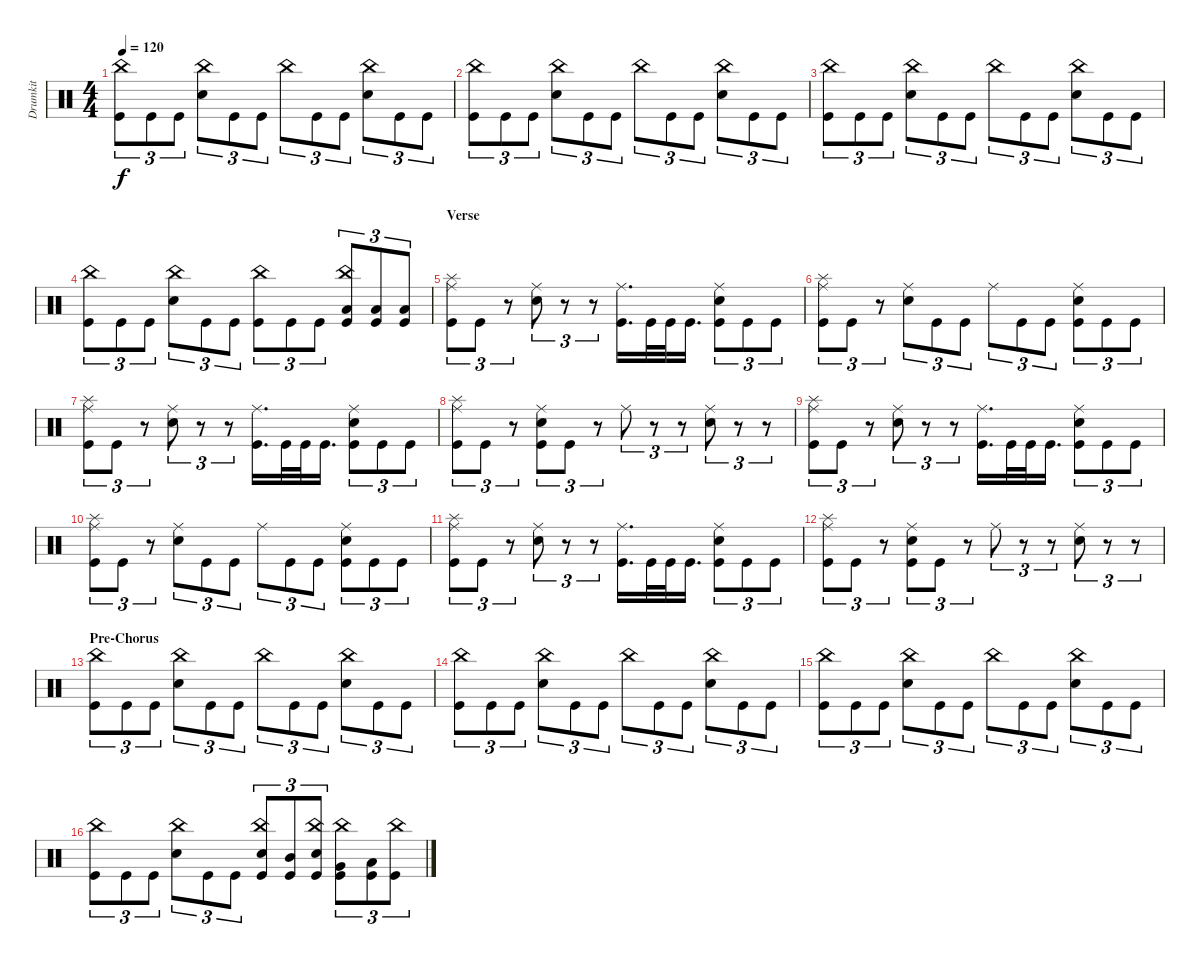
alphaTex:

\track ("Drumkit" "Drumkit") {instrument percussion}
\staff {score}
\articulation defaults
\ts (4 4)
\tempo 120
\clef neutral
\ks c
("Kick (hit)" "China (hit)").8{tu (3 2) dy f} "Kick (hit)".8{tu (3 2)} "Kick (hit)".8{tu (3 2)} ("Snare (hit) 2" "China (hit)").8{tu (3 2)} "Kick (hit)".8{tu (3 2)} "Kick (hit)".8{tu (3 2)} "China (hit)".8{tu (3 2)} "Kick (hit)".8{tu (3 2)} "Kick (hit)".8{tu (3 2)} ("Snare (hit) 2" "China (hit)").8{tu (3 2)} "Kick (hit)".8{tu (3 2)} "Kick (hit)".8{tu (3 2)} |
("Kick (hit)" "China (hit)").8{tu (3 2)} "Kick (hit)".8{tu (3 2)} "Kick (hit)".8{tu (3 2)} ("Snare (hit) 2" "China (hit)").8{tu (3 2)} "Kick (hit)".8{tu (3 2)} "Kick (hit)".8{tu (3 2)} "China (hit)".8{tu (3 2)} "Kick (hit)".8{tu (3 2)} "Kick (hit)".8{tu (3 2)} ("Snare (hit) 2" "China (hit)").8{tu (3 2)} "Kick (hit)".8{tu (3 2)} "Kick (hit)".8{tu (3 2)} |
("Kick (hit)" "China (hit)").8{tu (3 2)} "Kick (hit)".8{tu (3 2)} "Kick (hit)".8{tu (3 2)} ("Snare (hit) 2" "China (hit)").8{tu (3 2)} "Kick (hit)".8{tu (3 2)} "Kick (hit)".8{tu (3 2)} "China (hit)".8{tu (3 2)} "Kick (hit)".8{tu (3 2)} "Kick (hit)".8{tu (3 2)} ("Snare (hit) 2" "China (hit)").8{tu (3 2)} "Kick (hit)".8{tu (3 2)} "Kick (hit)".8{tu (3 2)} |
("Kick (hit)" "China (hit)").8{tu (3 2)} "Kick (hit)".8{tu (3 2)} "Kick (hit)".8{tu (3 2)} ("Snare (hit) 2" "China (hit)").8{tu (3 2)} "Kick (hit)".8{tu (3 2)} "Kick (hit)".8{tu (3 2)} ("China (hit)" "Kick (hit)").8{tu (3 2)} "Kick (hit)".8{tu (3 2)} "Kick (hit)".8{tu (3 2)} ("China (hit)" "Kick (hit)" "Low Tom (hit)").8{tu (3 2)} ("Kick (hit)" "Low Tom (hit)").8{tu (3 2)} ("Kick (hit)" "Low Tom (hit)").8{tu (3 2)} |
\section ("" "Verse")
("Splash (hit)" "Kick (hit)" "Ride (middle)").8{tu (3 2)} "Kick (hit)".8{tu (3 2)} r.8{tu (3 2)} ("Ride (middle)" "Snare (hit) 2").8{tu (3 2)} r.8{tu (3 2)} r.8{tu (3 2)} ("Kick (hit)" "Ride (middle)").16{d} "Kick (hit)".32 "Kick (hit)".32 "Kick (hit)".16{d} ("Kick (hit)" "Ride (middle)" "Snare (hit) 2").8{tu (3 2)} "Kick (hit)".8{tu (3 2)} "Kick (hit)".8{tu (3 2)} |
("Splash (hit)" "Kick (hit)" "Ride (middle)").8{tu (3 2)} "Kick (hit)".8{tu (3 2)} r.8{tu (3 2)} ("Ride (middle)" "Snare (hit) 2").8{tu (3 2)} "Kick (hit)".8{tu (3 2)} "Kick (hit)".8{tu (3 2)} "Ride (middle)".8{tu (3 2)} "Kick (hit)".8{tu (3 2)} "Kick (hit)".8{tu (3 2)} ("Kick (hit)" "Ride (middle)" "Snare (hit) 2").8{tu (3 2)} "Kick (hit)".8{tu (3 2)} "Kick (hit)".8{tu (3 2)} |
("Splash (hit)" "Kick (hit)" "Ride (middle)").8{tu (3 2)} "Kick (hit)".8{tu (3 2)} r.8{tu (3 2)} ("Ride (middle)" "Snare (hit) 2").8{tu (3 2)} r.8{tu (3 2)} r.8{tu (3 2)} ("Kick (hit)" "Ride (middle)").16{d} "Kick (hit)".32 "Kick (hit)".32 "Kick (hit)".16{d} ("Kick (hit)" "Ride (middle)" "Snare (hit) 2").8{tu (3 2)} "Kick (hit)".8{tu (3 2)} "Kick (hit)".8{tu (3 2)} |
("Splash (hit)" "Kick (hit)" "Ride (middle)").8{tu (3 2)} "Kick (hit)".8{tu (3 2)} r.8{tu (3 2)} ("Ride (middle)" "Snare (hit) 2" "Kick (hit)").8{tu (3 2)} "Kick (hit)".8{tu (3 2)} r.8{tu (3 2)} "Ride (middle)".8{tu (3 2)} r.8{tu (3 2)} r.8{tu (3 2)} ("Ride (middle)" "Snare (hit) 2").8{tu (3 2)} r.8{tu (3 2)} r.8{tu (3 2)} |
("Splash (hit)" "Kick (hit)" "Ride (middle)").8{tu (3 2)} "Kick (hit)".8{tu (3 2)} r.8{tu (3 2)} ("Ride (middle)" "Snare (hit) 2").8{tu (3 2)} r.8{tu (3 2)} r.8{tu (3 2)} ("Kick (hit)" "Ride (middle)").16{d} "Kick (hit)".32 "Kick (hit)".32 "Kick (hit)".16{d} ("Kick (hit)" "Ride (middle)" "Snare (hit) 2").8{tu (3 2)} "Kick (hit)".8{tu (3 2)} "Kick (hit)".8{tu (3 2)} |
("Splash (hit)" "Kick (hit)" "Ride (middle)").8{tu (3 2)} "Kick (hit)".8{tu (3 2)} r.8{tu (3 2)} ("Ride (middle)" "Snare (hit) 2").8{tu (3 2)} "Kick (hit)".8{tu (3 2)} "Kick (hit)".8{tu (3 2)} "Ride (middle)".8{tu (3 2)} "Kick (hit)".8{tu (3 2)} "Kick (hit)".8{tu (3 2)} ("Kick (hit)" "Ride (middle)" "Snare (hit) 2").8{tu (3 2)} "Kick (hit)".8{tu (3 2)} "Kick (hit)".8{tu (3 2)} |
("Splash (hit)" "Kick (hit)" "Ride (middle)").8{tu (3 2)} "Kick (hit)".8{tu (3 2)} r.8{tu (3 2)} ("Ride (middle)" "Snare (hit) 2").8{tu (3 2)} r.8{tu (3 2)} r.8{tu (3 2)} ("Kick (hit)" "Ride (middle)").16{d} "Kick (hit)".32 "Kick (hit)".32 "Kick (hit)".16{d} ("Kick (hit)" "Ride (middle)" "Snare (hit) 2").8{tu (3 2)} "Kick (hit)".8{tu (3 2)} "Kick (hit)".8{tu (3 2)} |
("Splash (hit)" "Kick (hit)" "Ride (middle)").8{tu (3 2)} "Kick (hit)".8{tu (3 2)} r.8{tu (3 2)} ("Ride (middle)" "Snare (hit) 2" "Kick (hit)").8{tu (3 2)} "Kick (hit)".8{tu (3 2)} r.8{tu (3 2)} "Ride (middle)".8{tu (3 2)} r.8{tu (3 2)} r.8{tu (3 2)} ("Ride (middle)" "Snare (hit) 2").8{tu (3 2)} r.8{tu (3 2)} r.8{tu (3 2)} |
\section ("" "Pre-Chorus")
("Kick (hit)" "China (hit)").8{tu (3 2)} "Kick (hit)".8{tu (3 2)} "Kick (hit)".8{tu (3 2)} ("Snare (hit) 2" "China (hit)").8{tu (3 2)} "Kick (hit)".8{tu (3 2)} "Kick (hit)".8{tu (3 2)} "China (hit)".8{tu (3 2)} "Kick (hit)".8{tu (3 2)} "Kick (hit)".8{tu (3 2)} ("Snare (hit) 2" "China (hit)").8{tu (3 2)} "Kick (hit)".8{tu (3 2)} "Kick (hit)".8{tu (3 2)} |
("Kick (hit)" "China (hit)").8{tu (3 2)} "Kick (hit)".8{tu (3 2)} "Kick (hit)".8{tu (3 2)} ("Snare (hit) 2" "China (hit)").8{tu (3 2)} "Kick (hit)".8{tu (3 2)} "Kick (hit)".8{tu (3 2)} "China (hit)".8{tu (3 2)} "Kick (hit)".8{tu (3 2)} "Kick (hit)".8{tu (3 2)} ("Snare (hit) 2" "China (hit)").8{tu (3 2)} "Kick (hit)".8{tu (3 2)} "Kick (hit)".8{tu (3 2)} |
("Kick (hit)" "China (hit)").8{tu (3 2)} "Kick (hit)".8{tu (3 2)} "Kick (hit)".8{tu (3 2)} ("Snare (hit) 2" "China (hit)").8{tu (3 2)} "Kick (hit)".8{tu (3 2)} "Kick (hit)".8{tu (3 2)} "China (hit)".8{tu (3 2)} "Kick (hit)".8{tu (3 2)} "Kick (hit)".8{tu (3 2)} ("Snare (hit) 2" "China (hit)").8{tu (3 2)} "Kick (hit)".8{tu (3 2)} "Kick (hit)".8{tu (3 2)} |
("Kick (hit)" "China (hit)").8{tu (3 2)} "Kick (hit)".8{tu (3 2)} "Kick (hit)".8{tu (3 2)} ("Snare (hit) 2" "China (hit)").8{tu (3 2)} "Kick (hit)".8{tu (3 2)} "Kick (hit)".8{tu (3 2)} ("Snare (hit) 2" "China (hit)" "Kick (hit)").8{tu (3 2)} ("Mid Tom (hit)" "Kick (hit)").8{tu (3 2)} ("Snare (hit) 2" "China (hit)" "Kick (hit)").8{tu (3 2)} ("Very Low Tom (hit)" "China (hit)" "Kick (hit)").8{tu (3 2)} ("Low Floor Tom (hit)" "Kick (hit)").8{tu (3 2)} ("Kick (hit)" "China (hit)").8{tu (3 2)}
